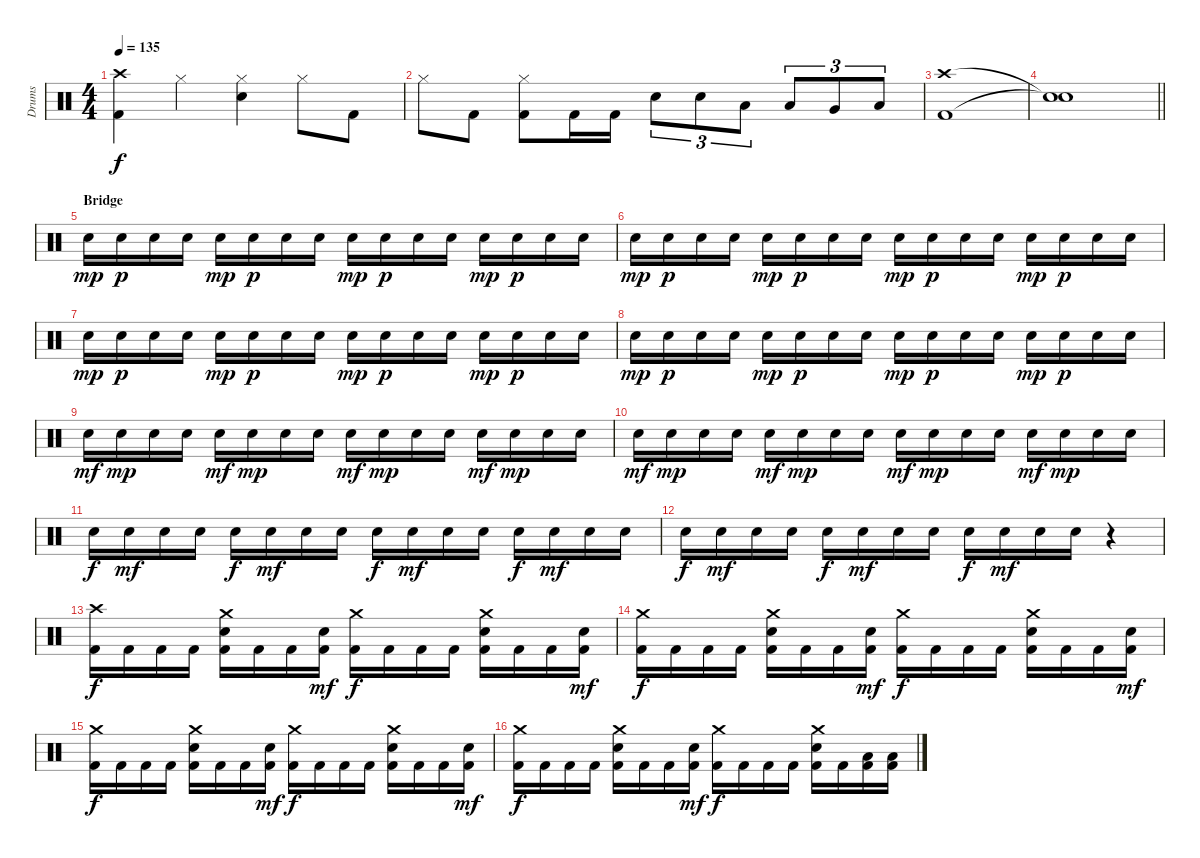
\track ("Drums" "Drums") {instrument percussion}
\staff {score}
\articulation defaults
\ts (4 4)
\tempo 135
\clef neutral
\ks c
("Kick (hit) 2" "Crash high (hit)").4{dy f} "Hi-Hat (closed)".4 ("Hi-Hat (closed)" "Electric Snare (hit)").4 "Hi-Hat (closed)".8 "Kick (hit) 2".8 |
"Hi-Hat (closed)".8 "Kick (hit) 2".8 ("Kick (hit) 2" "Hi-Hat (closed)").8 "Kick (hit) 2".16 "Kick (hit) 2".16 "Electric Snare (hit)".8{tu (3 2)} "Electric Snare (hit)".8{tu (3 2)} "Low Tom (hit)".8{tu (3 2)} "Low Tom (hit)".8{tu (3 2)} "Very Low Tom (hit)".8{tu (3 2)} "Low Floor Tom (hit)".8{tu (3 2)} |
("Kick (hit) 2" "Crash high (hit)").1 |
\barLineRight lightlight
("Snare (hit)"{t} "Snare (hit)"{t}).1 |
\section ("" "Bridge")
"Electric Snare (hit)".16{dy mp} "Electric Snare (hit)".16{dy p} "Electric Snare (hit)".16 "Electric Snare (hit)".16 "Electric Snare (hit)".16{dy mp} "Electric Snare (hit)".16{dy p} "Electric Snare (hit)".16 "Electric Snare (hit)".16 "Electric Snare (hit)".16{dy mp} "Electric Snare (hit)".16{dy p} "Electric Snare (hit)".16 "Electric Snare (hit)".16 "Electric Snare (hit)".16{dy mp} "Electric Snare (hit)".16{dy p} "Electric Snare (hit)".16 "Electric Snare (hit)".16 |
"Electric Snare (hit)".16{dy mp} "Electric Snare (hit)".16{dy p} "Electric Snare (hit)".16 "Electric Snare (hit)".16 "Electric Snare (hit)".16{dy mp} "Electric Snare (hit)".16{dy p} "Electric Snare (hit)".16 "Electric Snare (hit)".16 "Electric Snare (hit)".16{dy mp} "Electric Snare (hit)".16{dy p} "Electric Snare (hit)".16 "Electric Snare (hit)".16 "Electric Snare (hit)".16{dy mp} "Electric Snare (hit)".16{dy p} "Electric Snare (hit)".16 "Electric Snare (hit)".16 |
"Electric Snare (hit)".16{dy mp} "Electric Snare (hit)".16{dy p} "Electric Snare (hit)".16 "Electric Snare (hit)".16 "Electric Snare (hit)".16{dy mp} "Electric Snare (hit)".16{dy p} "Electric Snare (hit)".16 "Electric Snare (hit)".16 "Electric Snare (hit)".16{dy mp} "Electric Snare (hit)".16{dy p} "Electric Snare (hit)".16 "Electric Snare (hit)".16 "Electric Snare (hit)".16{dy mp} "Electric Snare (hit)".16{dy p} "Electric Snare (hit)".16 "Electric Snare (hit)".16 |
"Electric Snare (hit)".16{dy mp} "Electric Snare (hit)".16{dy p} "Electric Snare (hit)".16 "Electric Snare (hit)".16 "Electric Snare (hit)".16{dy mp} "Electric Snare (hit)".16{dy p} "Electric Snare (hit)".16 "Electric Snare (hit)".16 "Electric Snare (hit)".16{dy mp} "Electric Snare (hit)".16{dy p} "Electric Snare (hit)".16 "Electric Snare (hit)".16 "Electric Snare (hit)".16{dy mp} "Electric Snare (hit)".16{dy p} "Electric Snare (hit)".16 "Electric Snare (hit)".16 |
"Electric Snare (hit)".16{dy mf} "Electric Snare (hit)".16{dy mp} "Electric Snare (hit)".16 "Electric Snare (hit)".16 "Electric Snare (hit)".16{dy mf} "Electric Snare (hit)".16{dy mp} "Electric Snare (hit)".16 "Electric Snare (hit)".16 "Electric Snare (hit)".16{dy mf} "Electric Snare (hit)".16{dy mp} "Electric Snare (hit)".16 "Electric Snare (hit)".16 "Electric Snare (hit)".16{dy mf} "Electric Snare (hit)".16{dy mp} "Electric Snare (hit)".16 "Electric Snare (hit)".16 |
"Electric Snare (hit)".16{dy mf} "Electric Snare (hit)".16{dy mp} "Electric Snare (hit)".16 "Electric Snare (hit)".16 "Electric Snare (hit)".16{dy mf} "Electric Snare (hit)".16{dy mp} "Electric Snare (hit)".16 "Electric Snare (hit)".16 "Electric Snare (hit)".16{dy mf} "Electric Snare (hit)".16{dy mp} "Electric Snare (hit)".16 "Electric Snare (hit)".16 "Electric Snare (hit)".16{dy mf} "Electric Snare (hit)".16{dy mp} "Electric Snare (hit)".16 "Electric Snare (hit)".16 |
"Electric Snare (hit)".16{dy f} "Electric Snare (hit)".16{dy mf} "Electric Snare (hit)".16 "Electric Snare (hit)".16 "Electric Snare (hit)".16{dy f} "Electric Snare (hit)".16{dy mf} "Electric Snare (hit)".16 "Electric Snare (hit)".16 "Electric Snare (hit)".16{dy f} "Electric Snare (hit)".16{dy mf} "Electric Snare (hit)".16 "Electric Snare (hit)".16 "Electric Snare (hit)".16{dy f} "Electric Snare (hit)".16{dy mf} "Electric Snare (hit)".16 "Electric Snare (hit)".16 |
"Electric Snare (hit)".16{dy f} "Electric Snare (hit)".16{dy mf} "Electric Snare (hit)".16 "Electric Snare (hit)".16 "Electric Snare (hit)".16{dy f} "Electric Snare (hit)".16{dy mf} "Electric Snare (hit)".16 "Electric Snare (hit)".16 "Electric Snare (hit)".16{dy f} "Electric Snare (hit)".16{dy mf} "Electric Snare (hit)".16 "Electric Snare (hit)".16 r.4 |
("Kick (hit) 2" "Crash high (hit)").16{dy f} "Kick (hit) 2".16 "Kick (hit) 2".16 "Kick (hit) 2".16 ("Kick (hit) 2" "Crash medium (hit)" "Electric Snare (hit)").16 "Kick (hit) 2".16 "Kick (hit) 2".16 ("Kick (hit) 2" "Electric Snare (hit)").16{dy mf} ("Kick (hit) 2" "Crash medium (hit)").16{dy f} "Kick (hit) 2".16 "Kick (hit) 2".16 "Kick (hit) 2".16 ("Kick (hit) 2" "Crash medium (hit)" "Electric Snare (hit)").16 "Kick (hit) 2".16 "Kick (hit) 2".16 ("Kick (hit) 2" "Electric Snare (hit)").16{dy mf} |
("Kick (hit) 2" "Crash medium (hit)").16{dy f} "Kick (hit) 2".16 "Kick (hit) 2".16 "Kick (hit) 2".16 ("Kick (hit) 2" "Crash medium (hit)" "Electric Snare (hit)").16 "Kick (hit) 2".16 "Kick (hit) 2".16 ("Kick (hit) 2" "Electric Snare (hit)").16{dy mf} ("Kick (hit) 2" "Crash medium (hit)").16{dy f} "Kick (hit) 2".16 "Kick (hit) 2".16 "Kick (hit) 2".16 ("Kick (hit) 2" "Crash medium (hit)" "Electric Snare (hit)").16 "Kick (hit) 2".16 "Kick (hit) 2".16 ("Kick (hit) 2" "Electric Snare (hit)").16{dy mf} |
("Kick (hit) 2" "Crash medium (hit)").16{dy f} "Kick (hit) 2".16 "Kick (hit) 2".16 "Kick (hit) 2".16 ("Kick (hit) 2" "Crash medium (hit)" "Electric Snare (hit)").16 "Kick (hit) 2".16 "Kick (hit) 2".16 ("Kick (hit) 2" "Electric Snare (hit)").16{dy mf} ("Kick (hit) 2" "Crash medium (hit)").16{dy f} "Kick (hit) 2".16 "Kick (hit) 2".16 "Kick (hit) 2".16 ("Kick (hit) 2" "Crash medium (hit)" "Electric Snare (hit)").16 "Kick (hit) 2".16 "Kick (hit) 2".16 ("Kick (hit) 2" "Electric Snare (hit)").16{dy mf} |
("Kick (hit) 2" "Crash medium (hit)").16{dy f} "Kick (hit) 2".16 "Kick (hit) 2".16 "Kick (hit) 2".16 ("Kick (hit) 2" "Crash medium (hit)" "Electric Snare (hit)").16 "Kick (hit) 2".16 "Kick (hit) 2".16 ("Kick (hit) 2" "Electric Snare (hit)").16{dy mf} ("Kick (hit) 2" "Crash medium (hit)").16{dy f} "Kick (hit) 2".16 "Kick (hit) 2".16 "Kick (hit) 2".16 ("Kick (hit) 2" "Crash medium (hit)" "Electric Snare (hit)").16 "Kick (hit) 2".16 ("Kick (hit) 2" "Low Tom (hit)").16 ("Kick (hit) 2" "Low Tom (hit)").16
